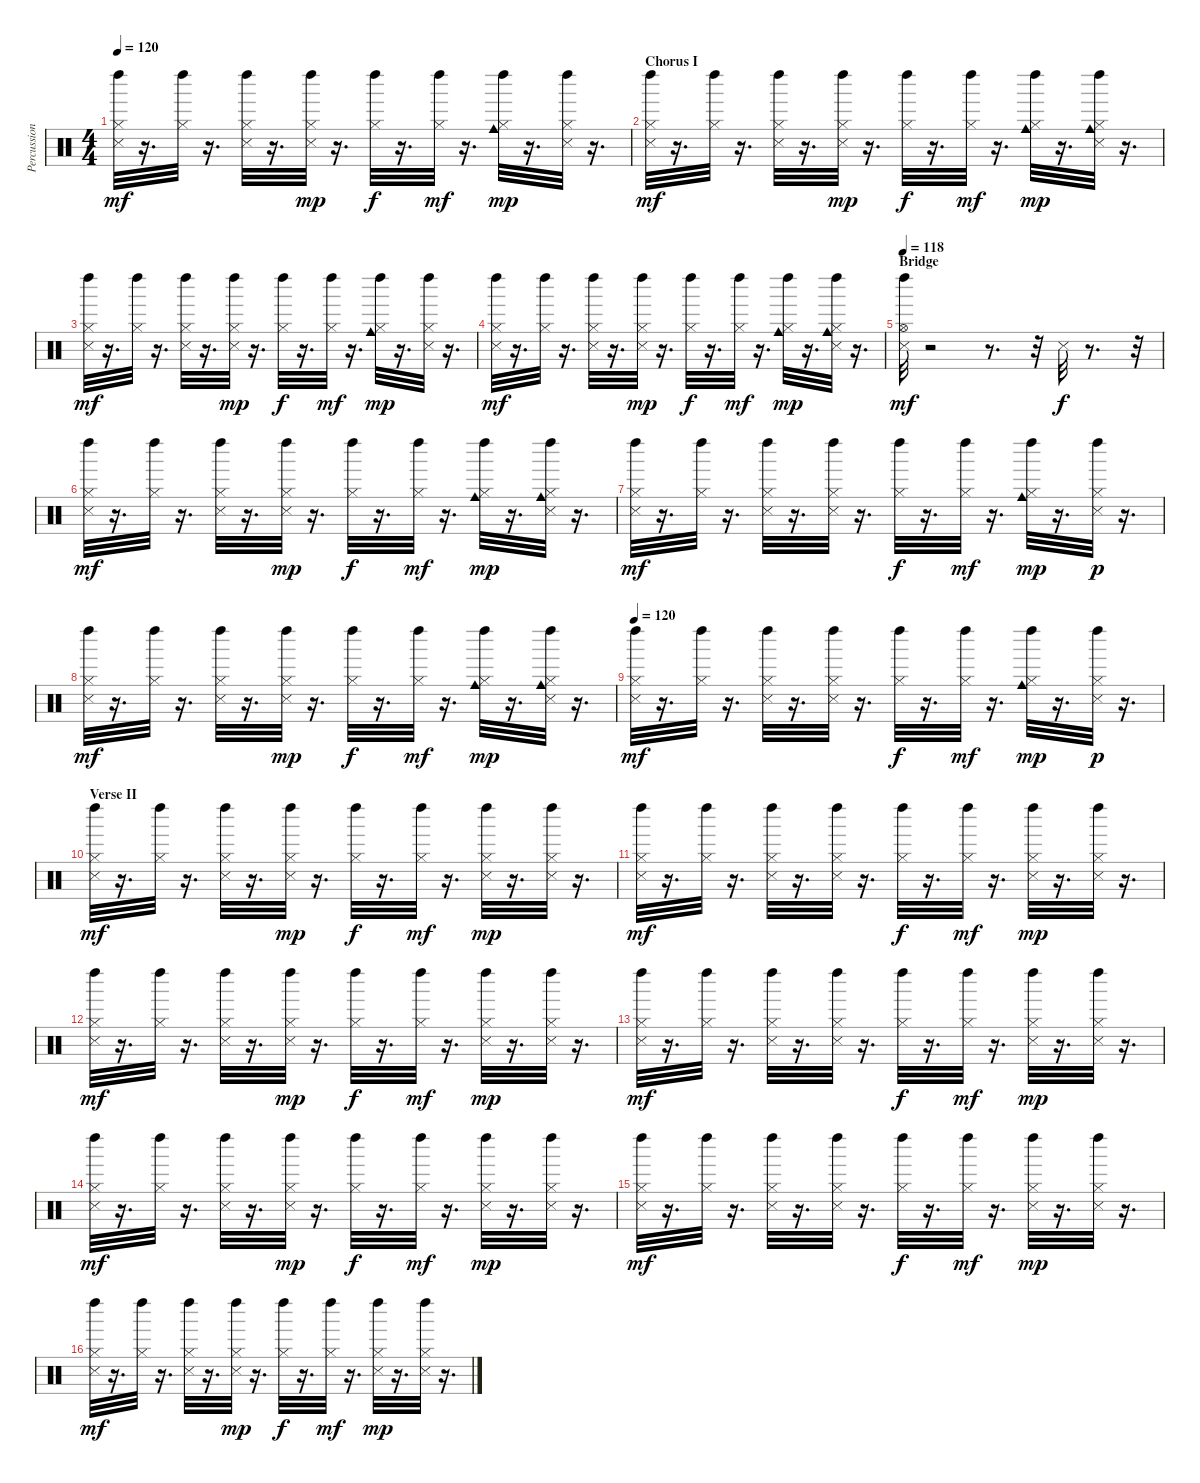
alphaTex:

\track ("Percussion" "Percussion") {instrument percussion}
\staff {score}
\articulation defaults
\ts (4 4)
\tempo 120
\clef neutral
\ks c
("Metronome (hit)" "Left Maraca (hit)" "Hi-Hat (closed)").32{dy mf} r.16{d} ("Left Maraca (hit)" "Hi-Hat (closed)").32 r.16{d} ("Snare (side stick) 3" "Left Maraca (hit)" "Hi-Hat (closed)").32 r.16{d} ("Metronome (hit)" "Left Maraca (hit)" "Hi-Hat (closed)").32{dy mp} r.16{d} ("Left Maraca (hit)" "Hi-Hat (closed)").32{dy f} r.16{d} ("Left Maraca (hit)" "Hi-Hat (closed)").32{dy mf} r.16{d} ("Cowbell medium (hit)" "Left Maraca (hit)" "Hi-Hat (closed)").32{dy mp} r.16{d} ("Metronome (hit)" "Left Maraca (hit)" "Hi-Hat (closed)").32 r.16{d} |
\section ("" "Chorus I")
("Metronome (hit)" "Hi-Hat (closed)" "Left Maraca (hit)").32{dy mf} r.16{d} ("Hi-Hat (closed)" "Left Maraca (hit)").32 r.16{d} ("Hi-Hat (closed)" "Snare (side stick) 3" "Left Maraca (hit)").32 r.16{d} ("Metronome (hit)" "Hi-Hat (closed)" "Left Maraca (hit)").32{dy mp} r.16{d} ("Hi-Hat (closed)" "Left Maraca (hit)").32{dy f} r.16{d} ("Hi-Hat (closed)" "Left Maraca (hit)").32{dy mf} r.16{d} ("Hi-Hat (closed)" "Cowbell medium (hit)" "Left Maraca (hit)").32{dy mp} r.16{d} ("Metronome (hit)" "Hi-Hat (closed)" "Cowbell medium (hit)" "Left Maraca (hit)").32 r.16{d} |
("Metronome (hit)" "Hi-Hat (closed)" "Left Maraca (hit)").32{dy mf} r.16{d} ("Hi-Hat (closed)" "Left Maraca (hit)").32 r.16{d} ("Snare (side stick) 3" "Hi-Hat (closed)" "Left Maraca (hit)").32 r.16{d} ("Metronome (hit)" "Hi-Hat (closed)" "Left Maraca (hit)").32{dy mp} r.16{d} ("Hi-Hat (closed)" "Left Maraca (hit)").32{dy f} r.16{d} ("Hi-Hat (closed)" "Left Maraca (hit)").32{dy mf} r.16{d} ("Cowbell medium (hit)" "Hi-Hat (closed)" "Left Maraca (hit)").32{dy mp} r.16{d} ("Metronome (hit)" "Hi-Hat (closed)" "Left Maraca (hit)").32 r.16{d} |
("Metronome (hit)" "Hi-Hat (closed)" "Left Maraca (hit)").32{dy mf} r.16{d} ("Hi-Hat (closed)" "Left Maraca (hit)").32 r.16{d} ("Hi-Hat (closed)" "Snare (side stick) 3" "Left Maraca (hit)").32 r.16{d} ("Metronome (hit)" "Hi-Hat (closed)" "Left Maraca (hit)").32{dy mp} r.16{d} ("Hi-Hat (closed)" "Left Maraca (hit)").32{dy f} r.16{d} ("Hi-Hat (closed)" "Left Maraca (hit)").32{dy mf} r.16{d} ("Hi-Hat (closed)" "Cowbell medium (hit)" "Left Maraca (hit)").32{dy mp} r.16{d} ("Metronome (hit)" "Hi-Hat (closed)" "Cowbell medium (hit)" "Left Maraca (hit)").32 r.16{d} |
\section ("" "Bridge")
\tempo 118
("Metronome (hit)" "Left Maraca (hit)" "Hi-Hat (open)").32{dy mf} r.2 r.8{d} r.32 "Snare (side stick) 3".32{dy f} r.8{d} r.32 |
("Metronome (hit)" "Left Maraca (hit)" "Hi-Hat (closed)").32{dy mf} r.16{d} ("Left Maraca (hit)" "Hi-Hat (closed)").32 r.16{d} ("Left Maraca (hit)" "Hi-Hat (closed)" "Snare (side stick) 3").32 r.16{d} ("Metronome (hit)" "Left Maraca (hit)" "Hi-Hat (closed)").32{dy mp} r.16{d} ("Left Maraca (hit)" "Hi-Hat (closed)").32{dy f} r.16{d} ("Left Maraca (hit)" "Hi-Hat (closed)").32{dy mf} r.16{d} ("Left Maraca (hit)" "Hi-Hat (closed)" "Cowbell medium (hit)").32{dy mp} r.16{d} ("Metronome (hit)" "Left Maraca (hit)" "Hi-Hat (closed)" "Cowbell medium (hit)").32 r.16{d} |
("Hi-Hat (closed)" "Left Maraca (hit)" "Metronome (hit)").32{dy mf} r.16{d} ("Hi-Hat (closed)" "Left Maraca (hit)").32 r.16{d} ("Snare (side stick) 3" "Hi-Hat (closed)" "Left Maraca (hit)").32 r.16{d} ("Hi-Hat (closed)" "Left Maraca (hit)" "Metronome (hit)").32 r.16{d} ("Hi-Hat (closed)" "Left Maraca (hit)").32{dy f} r.16{d} ("Hi-Hat (closed)" "Left Maraca (hit)").32{dy mf} r.16{d} ("Cowbell medium (hit)" "Hi-Hat (closed)" "Left Maraca (hit)").32{dy mp} r.16{d} ("Hi-Hat (closed)" "Left Maraca (hit)" "Metronome (hit)").32{dy p} r.16{d} |
("Metronome (hit)" "Hi-Hat (closed)" "Left Maraca (hit)").32{dy mf} r.16{d} ("Hi-Hat (closed)" "Left Maraca (hit)").32 r.16{d} ("Hi-Hat (closed)" "Snare (side stick) 3" "Left Maraca (hit)").32 r.16{d} ("Metronome (hit)" "Hi-Hat (closed)" "Left Maraca (hit)").32{dy mp} r.16{d} ("Hi-Hat (closed)" "Left Maraca (hit)").32{dy f} r.16{d} ("Hi-Hat (closed)" "Left Maraca (hit)").32{dy mf} r.16{d} ("Hi-Hat (closed)" "Cowbell medium (hit)" "Left Maraca (hit)").32{dy mp} r.16{d} ("Metronome (hit)" "Hi-Hat (closed)" "Cowbell medium (hit)" "Left Maraca (hit)").32 r.16{d} |
\tempo 120
("Hi-Hat (closed)" "Left Maraca (hit)" "Metronome (hit)").32{dy mf} r.16{d} ("Hi-Hat (closed)" "Left Maraca (hit)").32 r.16{d} ("Snare (side stick) 3" "Hi-Hat (closed)" "Left Maraca (hit)").32 r.16{d} ("Hi-Hat (closed)" "Left Maraca (hit)" "Metronome (hit)").32 r.16{d} ("Hi-Hat (closed)" "Left Maraca (hit)").32{dy f} r.16{d} ("Hi-Hat (closed)" "Left Maraca (hit)").32{dy mf} r.16{d} ("Cowbell medium (hit)" "Hi-Hat (closed)" "Left Maraca (hit)").32{dy mp} r.16{d} ("Hi-Hat (closed)" "Left Maraca (hit)" "Metronome (hit)").32{dy p} r.16{d} |
\section ("" "Verse II")
("Metronome (hit)" "Left Maraca (hit)" "Hi-Hat (closed)").32{dy mf} r.16{d} ("Left Maraca (hit)" "Hi-Hat (closed)").32 r.16{d} ("Left Maraca (hit)" "Hi-Hat (closed)" "Snare (side stick) 3").32 r.16{d} ("Metronome (hit)" "Left Maraca (hit)" "Hi-Hat (closed)").32{dy mp} r.16{d} ("Left Maraca (hit)" "Hi-Hat (closed)").32{dy f} r.16{d} ("Left Maraca (hit)" "Hi-Hat (closed)").32{dy mf} r.16{d} ("Snare (side stick) 3" "Left Maraca (hit)" "Hi-Hat (closed)").32{dy mp} r.16{d} ("Metronome (hit)" "Left Maraca (hit)" "Hi-Hat (closed)").32 r.16{d} |
("Hi-Hat (closed)" "Metronome (hit)" "Left Maraca (hit)").32{dy mf} r.16{d} ("Hi-Hat (closed)" "Left Maraca (hit)").32 r.16{d} ("Snare (side stick) 3" "Hi-Hat (closed)" "Left Maraca (hit)").32 r.16{d} ("Hi-Hat (closed)" "Left Maraca (hit)" "Metronome (hit)").32 r.16{d} ("Hi-Hat (closed)" "Left Maraca (hit)").32{dy f} r.16{d} ("Hi-Hat (closed)" "Left Maraca (hit)").32{dy mf} r.16{d} ("Hi-Hat (closed)" "Snare (side stick) 3" "Left Maraca (hit)").32{dy mp} r.16{d} ("Hi-Hat (closed)" "Metronome (hit)" "Left Maraca (hit)").32 r.16{d} |
("Metronome (hit)" "Left Maraca (hit)" "Hi-Hat (closed)").32{dy mf} r.16{d} ("Left Maraca (hit)" "Hi-Hat (closed)").32 r.16{d} ("Left Maraca (hit)" "Hi-Hat (closed)" "Snare (side stick) 3").32 r.16{d} ("Metronome (hit)" "Left Maraca (hit)" "Hi-Hat (closed)").32{dy mp} r.16{d} ("Left Maraca (hit)" "Hi-Hat (closed)").32{dy f} r.16{d} ("Left Maraca (hit)" "Hi-Hat (closed)").32{dy mf} r.16{d} ("Snare (side stick) 3" "Left Maraca (hit)" "Hi-Hat (closed)").32{dy mp} r.16{d} ("Metronome (hit)" "Left Maraca (hit)" "Hi-Hat (closed)").32 r.16{d} |
("Hi-Hat (closed)" "Metronome (hit)" "Left Maraca (hit)").32{dy mf} r.16{d} ("Hi-Hat (closed)" "Left Maraca (hit)").32 r.16{d} ("Snare (side stick) 3" "Hi-Hat (closed)" "Left Maraca (hit)").32 r.16{d} ("Hi-Hat (closed)" "Left Maraca (hit)" "Metronome (hit)").32 r.16{d} ("Hi-Hat (closed)" "Left Maraca (hit)").32{dy f} r.16{d} ("Hi-Hat (closed)" "Left Maraca (hit)").32{dy mf} r.16{d} ("Hi-Hat (closed)" "Snare (side stick) 3" "Left Maraca (hit)").32{dy mp} r.16{d} ("Hi-Hat (closed)" "Metronome (hit)" "Left Maraca (hit)").32 r.16{d} |
("Metronome (hit)" "Left Maraca (hit)" "Hi-Hat (closed)").32{dy mf} r.16{d} ("Left Maraca (hit)" "Hi-Hat (closed)").32 r.16{d} ("Left Maraca (hit)" "Hi-Hat (closed)" "Snare (side stick) 3").32 r.16{d} ("Metronome (hit)" "Left Maraca (hit)" "Hi-Hat (closed)").32{dy mp} r.16{d} ("Left Maraca (hit)" "Hi-Hat (closed)").32{dy f} r.16{d} ("Left Maraca (hit)" "Hi-Hat (closed)").32{dy mf} r.16{d} ("Snare (side stick) 3" "Left Maraca (hit)" "Hi-Hat (closed)").32{dy mp} r.16{d} ("Metronome (hit)" "Left Maraca (hit)" "Hi-Hat (closed)").32 r.16{d} |
("Hi-Hat (closed)" "Metronome (hit)" "Left Maraca (hit)").32{dy mf} r.16{d} ("Hi-Hat (closed)" "Left Maraca (hit)").32 r.16{d} ("Snare (side stick) 3" "Hi-Hat (closed)" "Left Maraca (hit)").32 r.16{d} ("Hi-Hat (closed)" "Left Maraca (hit)" "Metronome (hit)").32 r.16{d} ("Hi-Hat (closed)" "Left Maraca (hit)").32{dy f} r.16{d} ("Hi-Hat (closed)" "Left Maraca (hit)").32{dy mf} r.16{d} ("Hi-Hat (closed)" "Snare (side stick) 3" "Left Maraca (hit)").32{dy mp} r.16{d} ("Hi-Hat (closed)" "Metronome (hit)" "Left Maraca (hit)").32 r.16{d} |
("Metronome (hit)" "Left Maraca (hit)" "Hi-Hat (closed)").32{dy mf} r.16{d} ("Left Maraca (hit)" "Hi-Hat (closed)").32 r.16{d} ("Left Maraca (hit)" "Hi-Hat (closed)" "Snare (side stick) 3").32 r.16{d} ("Metronome (hit)" "Left Maraca (hit)" "Hi-Hat (closed)").32{dy mp} r.16{d} ("Left Maraca (hit)" "Hi-Hat (closed)").32{dy f} r.16{d} ("Left Maraca (hit)" "Hi-Hat (closed)").32{dy mf} r.16{d} ("Snare (side stick) 3" "Left Maraca (hit)" "Hi-Hat (closed)").32{dy mp} r.16{d} ("Metronome (hit)" "Left Maraca (hit)" "Hi-Hat (closed)").32 r.16{d}
